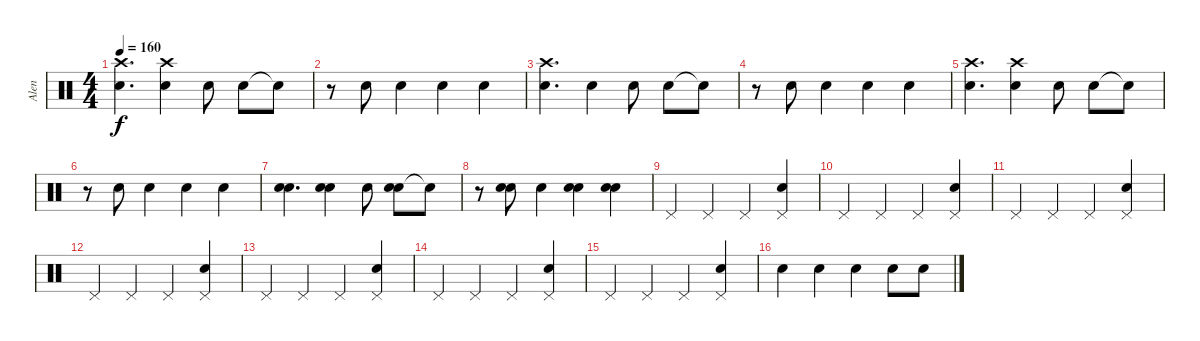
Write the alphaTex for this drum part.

\track ("Alen" "Alen") {instrument percussion}
\staff {score}
\articulation defaults
\ts (4 4)
\tempo 160
\clef neutral
\ks c
("Crash high (hit)" "Electric Snare (hit)").4{d dy f} ("Crash high (hit)" "Electric Snare (hit)").4 "Electric Snare (hit)".8 "Electric Snare (hit)".8 "Snare (hit)"{t}.8 |
r.8 "Electric Snare (hit)".8 "Electric Snare (hit)".4 "Electric Snare (hit)".4 "Electric Snare (hit)".4 |
("Crash high (hit)" "Electric Snare (hit)").4{d} "Electric Snare (hit)".4 "Electric Snare (hit)".8 "Electric Snare (hit)".8 "Snare (hit)"{t}.8 |
r.8 "Electric Snare (hit)".8 "Electric Snare (hit)".4 "Electric Snare (hit)".4 "Electric Snare (hit)".4 |
("Crash high (hit)" "Electric Snare (hit)").4{d} ("Crash high (hit)" "Electric Snare (hit)").4 "Electric Snare (hit)".8 "Electric Snare (hit)".8 "Snare (hit)"{t}.8 |
r.8 "Electric Snare (hit)".8 "Electric Snare (hit)".4 "Electric Snare (hit)".4 "Electric Snare (hit)".4 |
("Snare (hit) 2" "Electric Snare (hit)").4{d} ("Snare (hit) 2" "Electric Snare (hit)").4 "Electric Snare (hit)".8 ("Snare (hit) 2" "Electric Snare (hit)").8 "Snare (hit)"{t}.8 |
r.8 ("Snare (hit) 2" "Electric Snare (hit)").8 "Electric Snare (hit)".4 ("Snare (hit) 2" "Electric Snare (hit)").4 ("Snare (hit) 2" "Electric Snare (hit)").4 |
"Pedal Hi-Hat (hit)".4 "Pedal Hi-Hat (hit)".4 "Pedal Hi-Hat (hit)".4 ("Pedal Hi-Hat (hit)" "Snare (hit) 2").4 |
"Pedal Hi-Hat (hit)".4 "Pedal Hi-Hat (hit)".4 "Pedal Hi-Hat (hit)".4 ("Pedal Hi-Hat (hit)" "Snare (hit) 2").4 |
"Pedal Hi-Hat (hit)".4 "Pedal Hi-Hat (hit)".4 "Pedal Hi-Hat (hit)".4 ("Pedal Hi-Hat (hit)" "Snare (hit) 2").4 |
"Pedal Hi-Hat (hit)".4 "Pedal Hi-Hat (hit)".4 "Pedal Hi-Hat (hit)".4 ("Pedal Hi-Hat (hit)" "Snare (hit) 2").4 |
"Pedal Hi-Hat (hit)".4 "Pedal Hi-Hat (hit)".4 "Pedal Hi-Hat (hit)".4 ("Pedal Hi-Hat (hit)" "Snare (hit) 2").4 |
"Pedal Hi-Hat (hit)".4 "Pedal Hi-Hat (hit)".4 "Pedal Hi-Hat (hit)".4 ("Pedal Hi-Hat (hit)" "Snare (hit) 2").4 |
"Pedal Hi-Hat (hit)".4 "Pedal Hi-Hat (hit)".4 "Pedal Hi-Hat (hit)".4 ("Pedal Hi-Hat (hit)" "Snare (hit) 2").4 |
"Snare (hit) 2".4 "Snare (hit) 2".4 "Snare (hit) 2".4 "Snare (hit) 2".8 "Snare (hit) 2".8
